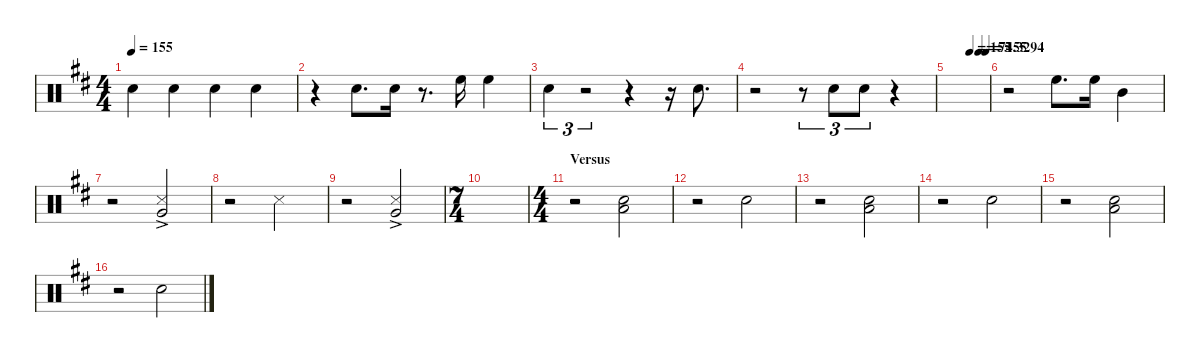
\hideDynamics
\bracketExtendMode nobrackets
\singleTrackTrackNamePolicy hidden
\multiTrackTrackNamePolicy hidden
\otherSystemsTrackNameOrientation horizontal
\track ("Drums" "Drums") {instrument percussion}
\staff {score}
\articulation defaults
\ts (4 4)
\tempo 155
\clef neutral
\ks d "Snare (hit) 2"{acc forcenatural}.4{dy mp beam Down} "Snare (hit) 2"{acc forcenatural}.4{beam Down} "Snare (hit) 2"{acc forcenatural}.4{beam Down} "Snare (hit) 2"{acc forcenatural}.4{beam Down}
|
r.4{beam Down} "Snare (hit) 2"{acc forcenatural}.8{d dy mf beam Down} "Snare (hit) 2"{acc forcenatural}.16{dy mp beam Down} r.8{d beam Down} "High Floor Tom (hit)"{acc forcenatural}.16{beam Down} "High Floor Tom (hit)"{acc forcenatural}.4{beam Down} |
"Snare (hit) 2"{acc forcenatural}.4{tu (3 2) dy mf beam Down} r.2{tu (3 2) beam Down} r.4{beam Down} r.16{beam Down} "Snare (hit) 2"{acc forcenatural}.8{d beam Down} |
r.2{beam Down} r.8{tu (3 2) beam Down} "Snare (hit) 2"{acc forcenatural}.8{tu (3 2) beam Down} "Snare (hit) 2"{acc forcenatural}.8{tu (3 2) beam Down} r.4{beam Down} |
\tempo (155 0.53125)
\tempo (74.3294 0.75)
\tempo (155 0.925)
|
r.2{beam Down} "High Floor Tom (hit)"{acc forcenatural}.8{d beam Down} "High Floor Tom (hit)"{acc forcenatural}.16{dy mp beam Down} "Mid Tom (hit)"{acc forcenatural}.4{dy p beam Down} |
r.2{beam Down} ("Snare (side stick) 3"{acc forcenatural} "Very Low Tom (hit)"{ac acc forcenatural}).2{dy mp beam Up} |
r.2{beam Down} "Snare (side stick) 3"{acc forcenatural}.2{beam Down} |
r.2{beam Down} ("Snare (side stick) 3"{acc forcenatural} "Very Low Tom (hit)"{ac acc forcenatural}).2{beam Up} |
\ts (7 4)
|
\ts (4 4)
\section ("" "Versus")
r.2{beam Down} ("Snare (hit) 2"{acc forcenatural} "Low Tom (hit)"{acc forcenatural}).2{dy mf beam Down} |
r.2{beam Down} "Snare (hit) 2"{acc forcenatural}.2{beam Down} |
r.2{beam Down} ("Snare (hit) 2"{acc forcenatural} "Low Tom (hit)"{acc forcenatural}).2{beam Down} |
r.2{beam Down} "Snare (hit) 2"{acc forcenatural}.2{beam Down} |
r.2{beam Down} ("Snare (hit) 2"{acc forcenatural} "Low Tom (hit)"{acc forcenatural}).2{beam Down} |
r.2{beam Down} "Snare (hit) 2"{acc forcenatural}.2{beam Down}
